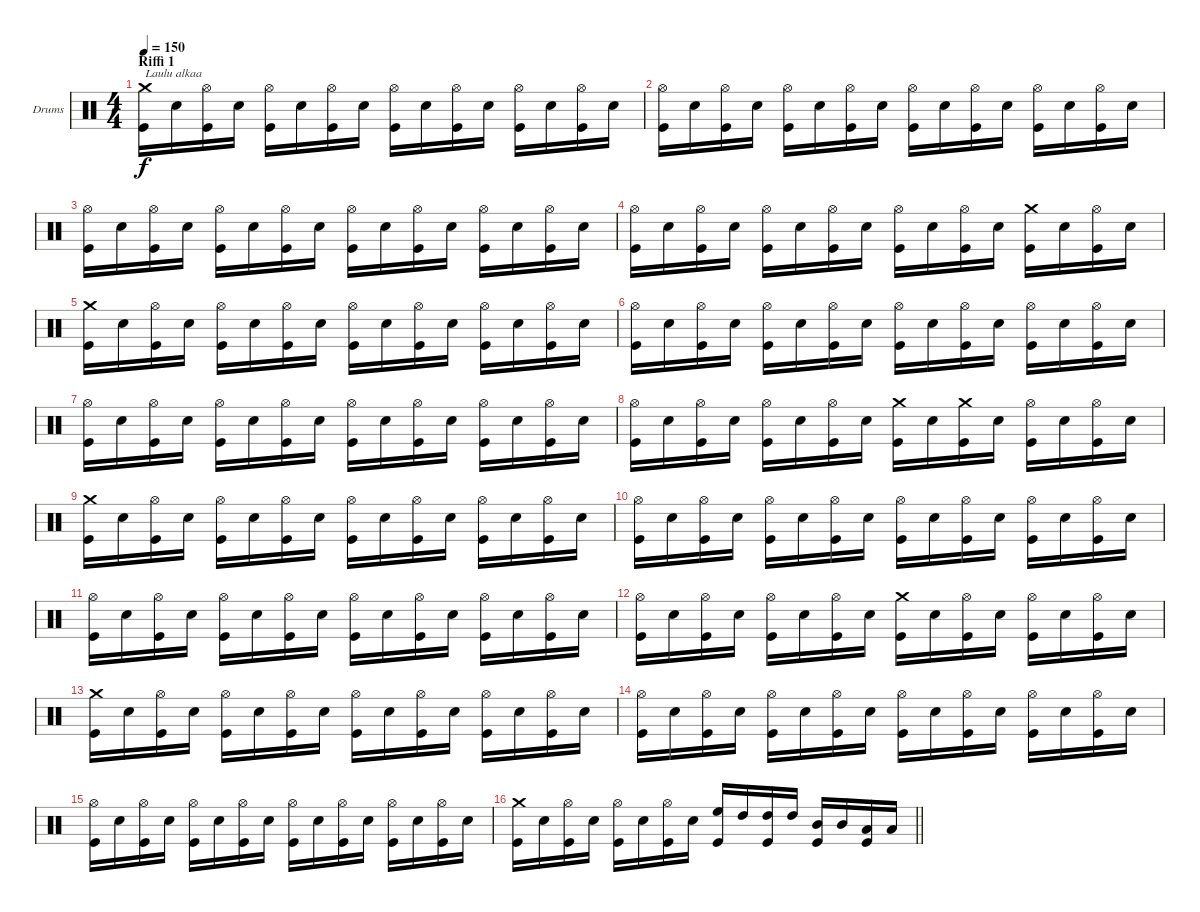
\bracketExtendMode groupsimilarinstruments
\firstSystemTrackNameOrientation horizontal
\otherSystemsTrackNameOrientation horizontal
\track ("Drumkit" "Drums") {instrument percussion}
\staff {score}
\articulation defaults
\ts (4 4)
\section ("" "Riffi 1")
\tempo 150
\clef neutral
\ks c
("Crash medium (hit)" "Kick (hit)").16{txt "Laulu alkaa" dy f} "Snare (hit) 2".16 ("Hi-Hat (open)" "Kick (hit)").16 "Snare (hit) 2".16 ("Hi-Hat (open)" "Kick (hit)").16 "Snare (hit) 2".16 ("Hi-Hat (open)" "Kick (hit)").16 "Snare (hit) 2".16 ("Hi-Hat (open)" "Kick (hit)").16 "Snare (hit) 2".16 ("Hi-Hat (open)" "Kick (hit)").16 "Snare (hit) 2".16 ("Hi-Hat (open)" "Kick (hit)").16 "Snare (hit) 2".16 ("Hi-Hat (open)" "Kick (hit)").16 "Snare (hit) 2".16 |
("Hi-Hat (open)" "Kick (hit)").16 "Snare (hit) 2".16 ("Hi-Hat (open)" "Kick (hit)").16 "Snare (hit) 2".16 ("Hi-Hat (open)" "Kick (hit)").16 "Snare (hit) 2".16 ("Hi-Hat (open)" "Kick (hit)").16 "Snare (hit) 2".16 ("Hi-Hat (open)" "Kick (hit)").16 "Snare (hit) 2".16 ("Hi-Hat (open)" "Kick (hit)").16 "Snare (hit) 2".16 ("Hi-Hat (open)" "Kick (hit)").16 "Snare (hit) 2".16 ("Hi-Hat (open)" "Kick (hit)").16 "Snare (hit) 2".16 |
("Hi-Hat (open)" "Kick (hit)").16 "Snare (hit) 2".16 ("Hi-Hat (open)" "Kick (hit)").16 "Snare (hit) 2".16 ("Hi-Hat (open)" "Kick (hit)").16 "Snare (hit) 2".16 ("Hi-Hat (open)" "Kick (hit)").16 "Snare (hit) 2".16 ("Hi-Hat (open)" "Kick (hit)").16 "Snare (hit) 2".16 ("Hi-Hat (open)" "Kick (hit)").16 "Snare (hit) 2".16 ("Hi-Hat (open)" "Kick (hit)").16 "Snare (hit) 2".16 ("Hi-Hat (open)" "Kick (hit)").16 "Snare (hit) 2".16 |
("Hi-Hat (open)" "Kick (hit)").16 "Snare (hit) 2".16 ("Hi-Hat (open)" "Kick (hit)").16 "Snare (hit) 2".16 ("Hi-Hat (open)" "Kick (hit)").16 "Snare (hit) 2".16 ("Hi-Hat (open)" "Kick (hit)").16 "Snare (hit) 2".16 ("Hi-Hat (open)" "Kick (hit)").16 "Snare (hit) 2".16 ("Hi-Hat (open)" "Kick (hit)").16 "Snare (hit) 2".16 ("Crash medium (hit)" "Kick (hit)").16 "Snare (hit) 2".16 ("Hi-Hat (open)" "Kick (hit)").16 "Snare (hit) 2".16 |
("Crash medium (hit)" "Kick (hit)").16 "Snare (hit) 2".16 ("Hi-Hat (open)" "Kick (hit)").16 "Snare (hit) 2".16 ("Hi-Hat (open)" "Kick (hit)").16 "Snare (hit) 2".16 ("Hi-Hat (open)" "Kick (hit)").16 "Snare (hit) 2".16 ("Hi-Hat (open)" "Kick (hit)").16 "Snare (hit) 2".16 ("Hi-Hat (open)" "Kick (hit)").16 "Snare (hit) 2".16 ("Hi-Hat (open)" "Kick (hit)").16 "Snare (hit) 2".16 ("Hi-Hat (open)" "Kick (hit)").16 "Snare (hit) 2".16 |
("Hi-Hat (open)" "Kick (hit)").16 "Snare (hit) 2".16 ("Hi-Hat (open)" "Kick (hit)").16 "Snare (hit) 2".16 ("Hi-Hat (open)" "Kick (hit)").16 "Snare (hit) 2".16 ("Hi-Hat (open)" "Kick (hit)").16 "Snare (hit) 2".16 ("Hi-Hat (open)" "Kick (hit)").16 "Snare (hit) 2".16 ("Hi-Hat (open)" "Kick (hit)").16 "Snare (hit) 2".16 ("Hi-Hat (open)" "Kick (hit)").16 "Snare (hit) 2".16 ("Hi-Hat (open)" "Kick (hit)").16 "Snare (hit) 2".16 |
("Hi-Hat (open)" "Kick (hit)").16 "Snare (hit) 2".16 ("Hi-Hat (open)" "Kick (hit)").16 "Snare (hit) 2".16 ("Hi-Hat (open)" "Kick (hit)").16 "Snare (hit) 2".16 ("Hi-Hat (open)" "Kick (hit)").16 "Snare (hit) 2".16 ("Hi-Hat (open)" "Kick (hit)").16 "Snare (hit) 2".16 ("Hi-Hat (open)" "Kick (hit)").16 "Snare (hit) 2".16 ("Hi-Hat (open)" "Kick (hit)").16 "Snare (hit) 2".16 ("Hi-Hat (open)" "Kick (hit)").16 "Snare (hit) 2".16 |
("Hi-Hat (open)" "Kick (hit)").16 "Snare (hit) 2".16 ("Hi-Hat (open)" "Kick (hit)").16 "Snare (hit) 2".16 ("Hi-Hat (open)" "Kick (hit)").16 "Snare (hit) 2".16 ("Hi-Hat (open)" "Kick (hit)").16 "Snare (hit) 2".16 ("Crash medium (hit)" "Kick (hit)").16 "Snare (hit) 2".16 ("Crash medium (hit)" "Kick (hit)").16 "Snare (hit) 2".16 ("Hi-Hat (open)" "Kick (hit)").16 "Snare (hit) 2".16 ("Hi-Hat (open)" "Kick (hit)").16 "Snare (hit) 2".16 |
("Crash medium (hit)" "Kick (hit)").16 "Snare (hit) 2".16 ("Hi-Hat (open)" "Kick (hit)").16 "Snare (hit) 2".16 ("Hi-Hat (open)" "Kick (hit)").16 "Snare (hit) 2".16 ("Hi-Hat (open)" "Kick (hit)").16 "Snare (hit) 2".16 ("Hi-Hat (open)" "Kick (hit)").16 "Snare (hit) 2".16 ("Hi-Hat (open)" "Kick (hit)").16 "Snare (hit) 2".16 ("Hi-Hat (open)" "Kick (hit)").16 "Snare (hit) 2".16 ("Hi-Hat (open)" "Kick (hit)").16 "Snare (hit) 2".16 |
("Hi-Hat (open)" "Kick (hit)").16 "Snare (hit) 2".16 ("Hi-Hat (open)" "Kick (hit)").16 "Snare (hit) 2".16 ("Hi-Hat (open)" "Kick (hit)").16 "Snare (hit) 2".16 ("Hi-Hat (open)" "Kick (hit)").16 "Snare (hit) 2".16 ("Hi-Hat (open)" "Kick (hit)").16 "Snare (hit) 2".16 ("Hi-Hat (open)" "Kick (hit)").16 "Snare (hit) 2".16 ("Hi-Hat (open)" "Kick (hit)").16 "Snare (hit) 2".16 ("Hi-Hat (open)" "Kick (hit)").16 "Snare (hit) 2".16 |
("Hi-Hat (open)" "Kick (hit)").16 "Snare (hit) 2".16 ("Hi-Hat (open)" "Kick (hit)").16 "Snare (hit) 2".16 ("Hi-Hat (open)" "Kick (hit)").16 "Snare (hit) 2".16 ("Hi-Hat (open)" "Kick (hit)").16 "Snare (hit) 2".16 ("Hi-Hat (open)" "Kick (hit)").16 "Snare (hit) 2".16 ("Hi-Hat (open)" "Kick (hit)").16 "Snare (hit) 2".16 ("Hi-Hat (open)" "Kick (hit)").16 "Snare (hit) 2".16 ("Hi-Hat (open)" "Kick (hit)").16 "Snare (hit) 2".16 |
("Hi-Hat (open)" "Kick (hit)").16 "Snare (hit) 2".16 ("Hi-Hat (open)" "Kick (hit)").16 "Snare (hit) 2".16 ("Hi-Hat (open)" "Kick (hit)").16 "Snare (hit) 2".16 ("Hi-Hat (open)" "Kick (hit)").16 "Snare (hit) 2".16 ("Crash medium (hit)" "Kick (hit)").16 "Snare (hit) 2".16 ("Hi-Hat (open)" "Kick (hit)").16 "Snare (hit) 2".16 ("Hi-Hat (open)" "Kick (hit)").16 "Snare (hit) 2".16 ("Hi-Hat (open)" "Kick (hit)").16 "Snare (hit) 2".16 |
("Crash medium (hit)" "Kick (hit)").16 "Snare (hit) 2".16 ("Hi-Hat (open)" "Kick (hit)").16 "Snare (hit) 2".16 ("Hi-Hat (open)" "Kick (hit)").16 "Snare (hit) 2".16 ("Hi-Hat (open)" "Kick (hit)").16 "Snare (hit) 2".16 ("Hi-Hat (open)" "Kick (hit)").16 "Snare (hit) 2".16 ("Hi-Hat (open)" "Kick (hit)").16 "Snare (hit) 2".16 ("Hi-Hat (open)" "Kick (hit)").16 "Snare (hit) 2".16 ("Hi-Hat (open)" "Kick (hit)").16 "Snare (hit) 2".16 |
("Hi-Hat (open)" "Kick (hit)").16 "Snare (hit) 2".16 ("Hi-Hat (open)" "Kick (hit)").16 "Snare (hit) 2".16 ("Hi-Hat (open)" "Kick (hit)").16 "Snare (hit) 2".16 ("Hi-Hat (open)" "Kick (hit)").16 "Snare (hit) 2".16 ("Hi-Hat (open)" "Kick (hit)").16 "Snare (hit) 2".16 ("Hi-Hat (open)" "Kick (hit)").16 "Snare (hit) 2".16 ("Hi-Hat (open)" "Kick (hit)").16 "Snare (hit) 2".16 ("Hi-Hat (open)" "Kick (hit)").16 "Snare (hit) 2".16 |
("Hi-Hat (open)" "Kick (hit)").16 "Snare (hit) 2".16 ("Hi-Hat (open)" "Kick (hit)").16 "Snare (hit) 2".16 ("Hi-Hat (open)" "Kick (hit)").16 "Snare (hit) 2".16 ("Hi-Hat (open)" "Kick (hit)").16 "Snare (hit) 2".16 ("Hi-Hat (open)" "Kick (hit)").16 "Snare (hit) 2".16 ("Hi-Hat (open)" "Kick (hit)").16 "Snare (hit) 2".16 ("Hi-Hat (open)" "Kick (hit)").16 "Snare (hit) 2".16 ("Hi-Hat (open)" "Kick (hit)").16 "Snare (hit) 2".16 |
\barLineRight lightlight
("Crash medium (hit)" "Kick (hit)").16 "Snare (hit) 2".16 ("Hi-Hat (open)" "Kick (hit)").16 "Snare (hit) 2".16 ("Hi-Hat (open)" "Kick (hit)").16 "Snare (hit) 2".16 ("Hi-Hat (open)" "Kick (hit)").16 "Snare (hit) 2".16 ("High Floor Tom (hit)" "Kick (hit)").16 "High Tom (hit)".16 ("High Tom (hit)" "Kick (hit)").16 "High Tom (hit)".16 ("Mid Tom (hit)" "Kick (hit)").16 "Mid Tom (hit)".16 ("Low Tom (hit)" "Kick (hit)").16 "Low Tom (hit)".16
